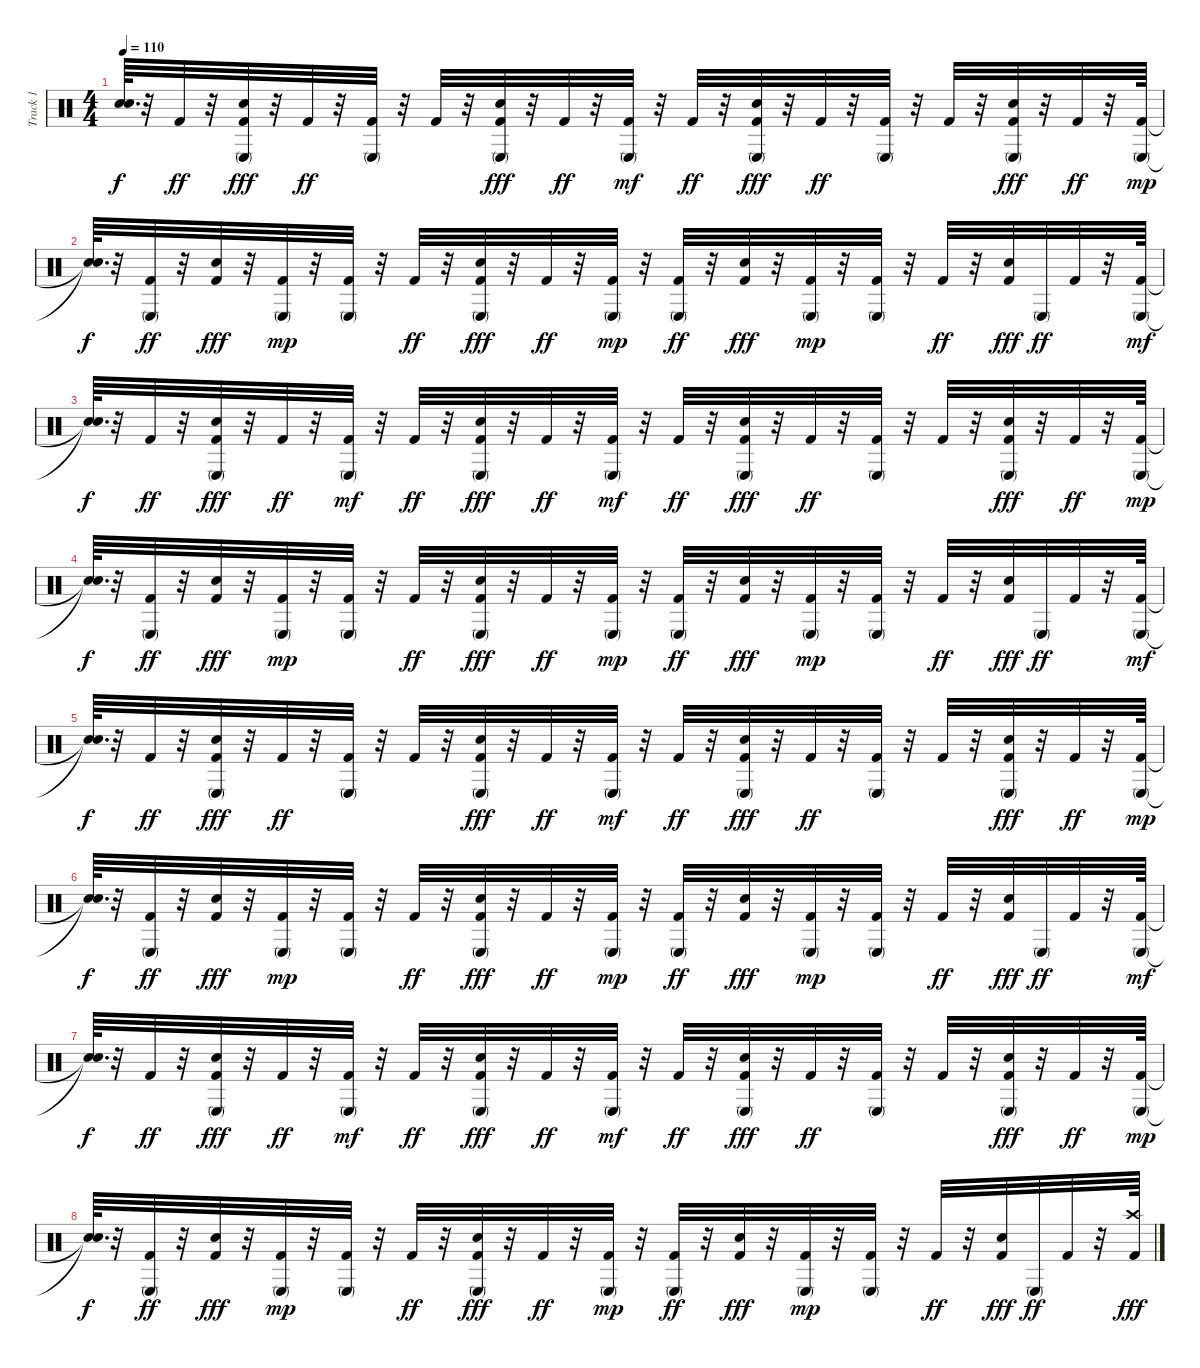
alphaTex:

\track ("Track 1" "Track 1") {mute instrument percussion}
\staff {score}
\articulation defaults
\ts (4 4)
\tempo 110
\clef neutral
\ks c
("Snare (hit)"{t} "Snare (hit)"{t}).64{d dy f} r.32 "Kick (hit) 2".32{dy ff} r.32 ("Kick (hit) 2" "Conga low (mute)" "Snare (hit) 2").32{dy fff} r.32 "Kick (hit) 2".32{dy ff} r.32 ("Conga low (mute)" "Kick (hit) 2").32 r.32 "Kick (hit) 2".32 r.32 ("Kick (hit) 2" "Conga low (mute)" "Snare (hit) 2").32{dy fff} r.32 "Kick (hit) 2".32{dy ff} r.32 ("Kick (hit) 2" "Conga low (mute)").32{dy mf} r.32 "Kick (hit) 2".32{dy ff} r.32 ("Kick (hit) 2" "Snare (hit) 2" "Conga low (mute)").32{dy fff} r.32 "Kick (hit) 2".32{dy ff} r.32 ("Conga low (mute)" "Kick (hit) 2").32 r.32 "Kick (hit) 2".32 r.32 ("Kick (hit) 2" "Conga low (mute)" "Snare (hit) 2").32{dy fff} r.32 "Kick (hit) 2".32{dy ff} r.32 ("Kick (hit) 2" "Conga low (mute)").64{dy mp} |
("Snare (hit)"{t} "Snare (hit)"{t}).64{d dy f} r.32 ("Conga low (mute)" "Kick (hit) 2").32{dy ff} r.32 ("Kick (hit) 2" "Snare (hit) 2").32{dy fff} r.32 ("Kick (hit) 2" "Conga low (mute)").32{dy mp} r.32 ("Kick (hit) 2" "Conga low (mute)").32 r.32 "Kick (hit) 2".32{dy ff} r.32 ("Kick (hit) 2" "Conga low (mute)" "Snare (hit) 2").32{dy fff} r.32 "Kick (hit) 2".32{dy ff} r.32 ("Kick (hit) 2" "Conga low (mute)").32{dy mp} r.32 ("Kick (hit) 2" "Conga low (mute)").32{dy ff} r.32 ("Kick (hit) 2" "Snare (hit) 2").32{dy fff} r.32 ("Kick (hit) 2" "Conga low (mute)").32{dy mp} r.32 ("Kick (hit) 2" "Conga low (mute)").32 r.32 "Kick (hit) 2".32{dy ff} r.32 ("Kick (hit) 2" "Snare (hit) 2").32{dy fff} "Conga low (mute)".32{dy ff} "Kick (hit) 2".32 r.32 ("Kick (hit) 2" "Conga low (mute)").64{dy mf} |
("Snare (hit)"{t} "Snare (hit)"{t}).64{d dy f} r.32 "Kick (hit) 2".32{dy ff} r.32 ("Kick (hit) 2" "Snare (hit) 2" "Conga low (mute)").32{dy fff} r.32 "Kick (hit) 2".32{dy ff} r.32 ("Kick (hit) 2" "Conga low (mute)").32{dy mf} r.32 "Kick (hit) 2".32{dy ff} r.32 ("Kick (hit) 2" "Snare (hit) 2" "Conga low (mute)").32{dy fff} r.32 "Kick (hit) 2".32{dy ff} r.32 ("Kick (hit) 2" "Conga low (mute)").32{dy mf} r.32 "Kick (hit) 2".32{dy ff} r.32 ("Snare (hit) 2" "Kick (hit) 2" "Conga low (mute)").32{dy fff} r.32 "Kick (hit) 2".32{dy ff} r.32 ("Conga low (mute)" "Kick (hit) 2").32 r.32 "Kick (hit) 2".32 r.32 ("Kick (hit) 2" "Snare (hit) 2" "Conga low (mute)").32{dy fff} r.32 "Kick (hit) 2".32{dy ff} r.32 ("Kick (hit) 2" "Conga low (mute)").64{dy mp} |
("Snare (hit)"{t} "Snare (hit)"{t}).64{d dy f} r.32 ("Conga low (mute)" "Kick (hit) 2").32{dy ff} r.32 ("Kick (hit) 2" "Snare (hit) 2").32{dy fff} r.32 ("Kick (hit) 2" "Conga low (mute)").32{dy mp} r.32 ("Kick (hit) 2" "Conga low (mute)").32 r.32 "Kick (hit) 2".32{dy ff} r.32 ("Kick (hit) 2" "Conga low (mute)" "Snare (hit) 2").32{dy fff} r.32 "Kick (hit) 2".32{dy ff} r.32 ("Kick (hit) 2" "Conga low (mute)").32{dy mp} r.32 ("Kick (hit) 2" "Conga low (mute)").32{dy ff} r.32 ("Kick (hit) 2" "Snare (hit) 2").32{dy fff} r.32 ("Kick (hit) 2" "Conga low (mute)").32{dy mp} r.32 ("Kick (hit) 2" "Conga low (mute)").32 r.32 "Kick (hit) 2".32{dy ff} r.32 ("Kick (hit) 2" "Snare (hit) 2").32{dy fff} "Conga low (mute)".32{dy ff} "Kick (hit) 2".32 r.32 ("Kick (hit) 2" "Conga low (mute)").64{dy mf} |
("Snare (hit)"{t} "Snare (hit)"{t}).64{d dy f} r.32 "Kick (hit) 2".32{dy ff} r.32 ("Kick (hit) 2" "Conga low (mute)" "Snare (hit) 2").32{dy fff} r.32 "Kick (hit) 2".32{dy ff} r.32 ("Conga low (mute)" "Kick (hit) 2").32 r.32 "Kick (hit) 2".32 r.32 ("Kick (hit) 2" "Conga low (mute)" "Snare (hit) 2").32{dy fff} r.32 "Kick (hit) 2".32{dy ff} r.32 ("Kick (hit) 2" "Conga low (mute)").32{dy mf} r.32 "Kick (hit) 2".32{dy ff} r.32 ("Kick (hit) 2" "Snare (hit) 2" "Conga low (mute)").32{dy fff} r.32 "Kick (hit) 2".32{dy ff} r.32 ("Conga low (mute)" "Kick (hit) 2").32 r.32 "Kick (hit) 2".32 r.32 ("Kick (hit) 2" "Conga low (mute)" "Snare (hit) 2").32{dy fff} r.32 "Kick (hit) 2".32{dy ff} r.32 ("Kick (hit) 2" "Conga low (mute)").64{dy mp} |
("Snare (hit)"{t} "Snare (hit)"{t}).64{d dy f} r.32 ("Conga low (mute)" "Kick (hit) 2").32{dy ff} r.32 ("Kick (hit) 2" "Snare (hit) 2").32{dy fff} r.32 ("Kick (hit) 2" "Conga low (mute)").32{dy mp} r.32 ("Kick (hit) 2" "Conga low (mute)").32 r.32 "Kick (hit) 2".32{dy ff} r.32 ("Kick (hit) 2" "Conga low (mute)" "Snare (hit) 2").32{dy fff} r.32 "Kick (hit) 2".32{dy ff} r.32 ("Kick (hit) 2" "Conga low (mute)").32{dy mp} r.32 ("Kick (hit) 2" "Conga low (mute)").32{dy ff} r.32 ("Kick (hit) 2" "Snare (hit) 2").32{dy fff} r.32 ("Kick (hit) 2" "Conga low (mute)").32{dy mp} r.32 ("Kick (hit) 2" "Conga low (mute)").32 r.32 "Kick (hit) 2".32{dy ff} r.32 ("Kick (hit) 2" "Snare (hit) 2").32{dy fff} "Conga low (mute)".32{dy ff} "Kick (hit) 2".32 r.32 ("Kick (hit) 2" "Conga low (mute)").64{dy mf} |
("Snare (hit)"{t} "Snare (hit)"{t}).64{d dy f} r.32 "Kick (hit) 2".32{dy ff} r.32 ("Kick (hit) 2" "Snare (hit) 2" "Conga low (mute)").32{dy fff} r.32 "Kick (hit) 2".32{dy ff} r.32 ("Kick (hit) 2" "Conga low (mute)").32{dy mf} r.32 "Kick (hit) 2".32{dy ff} r.32 ("Kick (hit) 2" "Snare (hit) 2" "Conga low (mute)").32{dy fff} r.32 "Kick (hit) 2".32{dy ff} r.32 ("Kick (hit) 2" "Conga low (mute)").32{dy mf} r.32 "Kick (hit) 2".32{dy ff} r.32 ("Snare (hit) 2" "Kick (hit) 2" "Conga low (mute)").32{dy fff} r.32 "Kick (hit) 2".32{dy ff} r.32 ("Conga low (mute)" "Kick (hit) 2").32 r.32 "Kick (hit) 2".32 r.32 ("Kick (hit) 2" "Snare (hit) 2" "Conga low (mute)").32{dy fff} r.32 "Kick (hit) 2".32{dy ff} r.32 ("Kick (hit) 2" "Conga low (mute)").64{dy mp} |
("Snare (hit)"{t} "Snare (hit)"{t}).64{d dy f} r.32 ("Conga low (mute)" "Kick (hit) 2").32{dy ff} r.32 ("Kick (hit) 2" "Snare (hit) 2").32{dy fff} r.32 ("Kick (hit) 2" "Conga low (mute)").32{dy mp} r.32 ("Kick (hit) 2" "Conga low (mute)").32 r.32 "Kick (hit) 2".32{dy ff} r.32 ("Kick (hit) 2" "Conga low (mute)" "Snare (hit) 2").32{dy fff} r.32 "Kick (hit) 2".32{dy ff} r.32 ("Kick (hit) 2" "Conga low (mute)").32{dy mp} r.32 ("Kick (hit) 2" "Conga low (mute)").32{dy ff} r.32 ("Kick (hit) 2" "Snare (hit) 2").32{dy fff} r.32 ("Kick (hit) 2" "Conga low (mute)").32{dy mp} r.32 ("Kick (hit) 2" "Conga low (mute)").32 r.32 "Kick (hit) 2".32{dy ff} r.32 ("Kick (hit) 2" "Snare (hit) 2").32{dy fff} "Conga low (mute)".32{dy ff} "Kick (hit) 2".32 r.32 ("Crash high (hit)" "Kick (hit) 2").64{dy fff}
